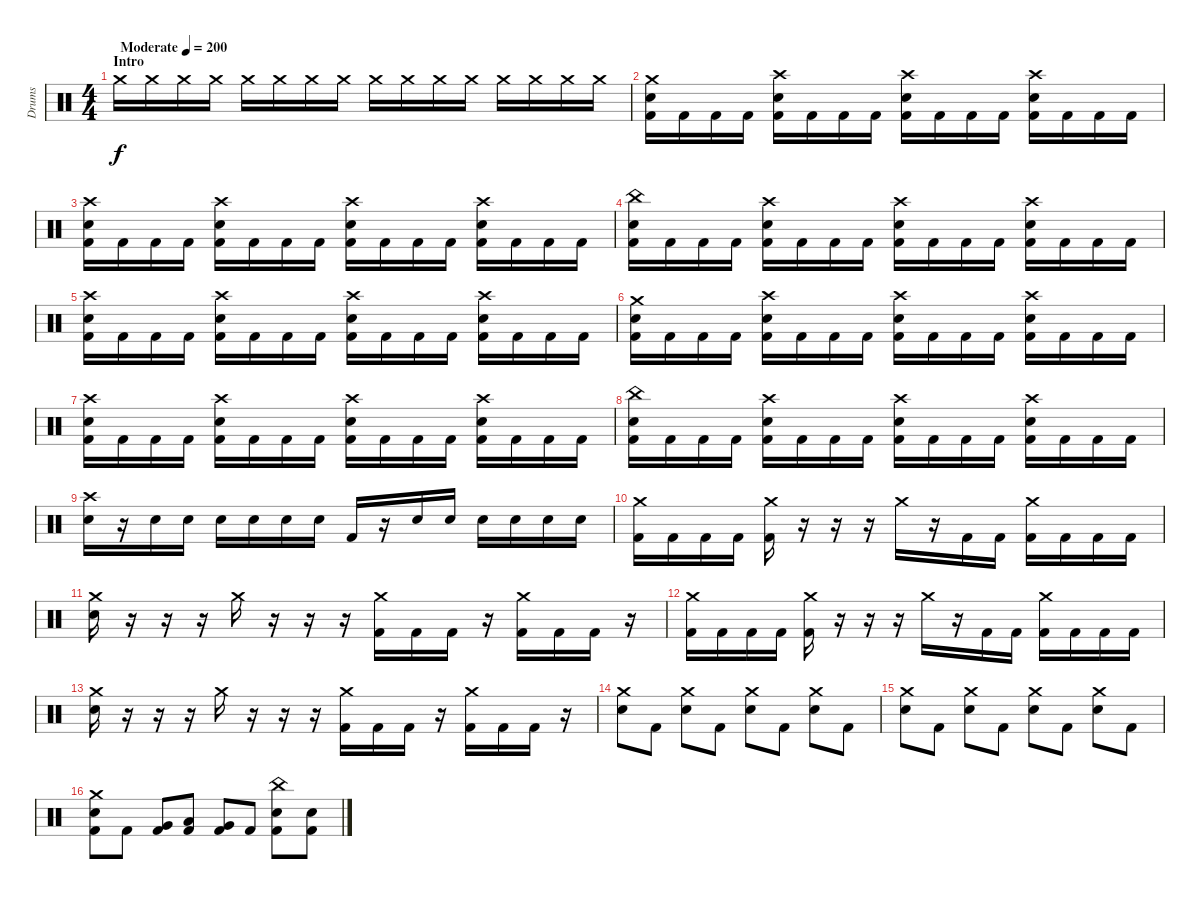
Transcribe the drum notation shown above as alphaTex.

\track ("Drums" "Drums") {instrument percussion}
\staff {score}
\articulation defaults
\ts (4 4)
\section ("" "Intro")
\tempo (200 "Moderate")
\clef neutral
\ks c "Crash medium (hit)".16{dy f volume 0} "Crash medium (hit)".16{volume 13} "Crash medium (hit)".16 "Crash medium (hit)".16 "Crash medium (hit)".16 "Crash medium (hit)".16 "Crash medium (hit)".16 "Crash medium (hit)".16 "Crash medium (hit)".16 "Crash medium (hit)".16 "Crash medium (hit)".16 "Crash medium (hit)".16 "Crash medium (hit)".16 "Crash medium (hit)".16 "Crash medium (hit)".16 "Crash medium (hit)".16
|
("Crash medium (hit)" "Electric Snare (hit)" "Kick (hit) 2").16 "Kick (hit) 2".16 "Kick (hit) 2".16 "Kick (hit) 2".16 ("Crash high (hit)" "Electric Snare (hit)" "Kick (hit) 2").16 "Kick (hit) 2".16 "Kick (hit) 2".16 "Kick (hit) 2".16 ("Crash high (hit)" "Electric Snare (hit)" "Kick (hit) 2").16 "Kick (hit) 2".16 "Kick (hit) 2".16 "Kick (hit) 2".16 ("Crash high (hit)" "Electric Snare (hit)" "Kick (hit) 2").16 "Kick (hit) 2".16 "Kick (hit) 2".16 "Kick (hit) 2".16 |
("Crash high (hit)" "Electric Snare (hit)" "Kick (hit) 2").16 "Kick (hit) 2".16 "Kick (hit) 2".16 "Kick (hit) 2".16 ("Crash high (hit)" "Electric Snare (hit)" "Kick (hit) 2").16 "Kick (hit) 2".16 "Kick (hit) 2".16 "Kick (hit) 2".16 ("Crash high (hit)" "Electric Snare (hit)" "Kick (hit) 2").16 "Kick (hit) 2".16 "Kick (hit) 2".16 "Kick (hit) 2".16 ("Crash high (hit)" "Electric Snare (hit)" "Kick (hit) 2").16 "Kick (hit) 2".16 "Kick (hit) 2".16 "Kick (hit) 2".16 |
("China (hit)" "Electric Snare (hit)" "Kick (hit) 2").16 "Kick (hit) 2".16 "Kick (hit) 2".16 "Kick (hit) 2".16 ("Crash high (hit)" "Electric Snare (hit)" "Kick (hit) 2").16 "Kick (hit) 2".16 "Kick (hit) 2".16 "Kick (hit) 2".16 ("Crash high (hit)" "Electric Snare (hit)" "Kick (hit) 2").16 "Kick (hit) 2".16 "Kick (hit) 2".16 "Kick (hit) 2".16 ("Crash high (hit)" "Electric Snare (hit)" "Kick (hit) 2").16 "Kick (hit) 2".16 "Kick (hit) 2".16 "Kick (hit) 2".16 |
("Crash high (hit)" "Electric Snare (hit)" "Kick (hit) 2").16 "Kick (hit) 2".16 "Kick (hit) 2".16 "Kick (hit) 2".16 ("Crash high (hit)" "Electric Snare (hit)" "Kick (hit) 2").16 "Kick (hit) 2".16 "Kick (hit) 2".16 "Kick (hit) 2".16 ("Crash high (hit)" "Electric Snare (hit)" "Kick (hit) 2").16 "Kick (hit) 2".16 "Kick (hit) 2".16 "Kick (hit) 2".16 ("Crash high (hit)" "Electric Snare (hit)" "Kick (hit) 2").16 "Kick (hit) 2".16 "Kick (hit) 2".16 "Kick (hit) 2".16 |
("Crash medium (hit)" "Electric Snare (hit)" "Kick (hit) 2").16 "Kick (hit) 2".16 "Kick (hit) 2".16 "Kick (hit) 2".16 ("Crash high (hit)" "Electric Snare (hit)" "Kick (hit) 2").16 "Kick (hit) 2".16 "Kick (hit) 2".16 "Kick (hit) 2".16 ("Crash high (hit)" "Electric Snare (hit)" "Kick (hit) 2").16 "Kick (hit) 2".16 "Kick (hit) 2".16 "Kick (hit) 2".16 ("Crash high (hit)" "Electric Snare (hit)" "Kick (hit) 2").16 "Kick (hit) 2".16 "Kick (hit) 2".16 "Kick (hit) 2".16 |
("Crash high (hit)" "Electric Snare (hit)" "Kick (hit) 2").16 "Kick (hit) 2".16 "Kick (hit) 2".16 "Kick (hit) 2".16 ("Crash high (hit)" "Electric Snare (hit)" "Kick (hit) 2").16 "Kick (hit) 2".16 "Kick (hit) 2".16 "Kick (hit) 2".16 ("Crash high (hit)" "Electric Snare (hit)" "Kick (hit) 2").16 "Kick (hit) 2".16 "Kick (hit) 2".16 "Kick (hit) 2".16 ("Crash high (hit)" "Electric Snare (hit)" "Kick (hit) 2").16 "Kick (hit) 2".16 "Kick (hit) 2".16 "Kick (hit) 2".16 |
("China (hit)" "Electric Snare (hit)" "Kick (hit) 2").16 "Kick (hit) 2".16 "Kick (hit) 2".16 "Kick (hit) 2".16 ("Crash high (hit)" "Electric Snare (hit)" "Kick (hit) 2").16 "Kick (hit) 2".16 "Kick (hit) 2".16 "Kick (hit) 2".16 ("Crash high (hit)" "Electric Snare (hit)" "Kick (hit) 2").16 "Kick (hit) 2".16 "Kick (hit) 2".16 "Kick (hit) 2".16 ("Crash high (hit)" "Electric Snare (hit)" "Kick (hit) 2").16 "Kick (hit) 2".16 "Kick (hit) 2".16 "Kick (hit) 2".16 |
("Crash high (hit)" "Electric Snare (hit)").16 r.16 "Electric Snare (hit)".16 "Electric Snare (hit)".16 "Electric Snare (hit)".16 "Electric Snare (hit)".16 "Electric Snare (hit)".16 "Electric Snare (hit)".16 "Kick (hit) 2".16 r.16 "Electric Snare (hit)".16 "Electric Snare (hit)".16 "Electric Snare (hit)".16 "Electric Snare (hit)".16 "Electric Snare (hit)".16 "Electric Snare (hit)".16 |
("Crash medium (hit)" "Kick (hit) 2").16 "Kick (hit) 2".16 "Kick (hit) 2".16 "Kick (hit) 2".16 ("Crash medium (hit)" "Kick (hit) 2").16 r.16 r.16 r.16 "Crash medium (hit)".16 r.16 "Kick (hit) 2".16 "Kick (hit) 2".16 ("Crash medium (hit)" "Kick (hit) 2").16 "Kick (hit) 2".16 "Kick (hit) 2".16 "Kick (hit) 2".16 |
("Crash medium (hit)" "Electric Snare (hit)").16 r.16 r.16 r.16 "Crash medium (hit)".16 r.16 r.16 r.16 ("Crash medium (hit)" "Kick (hit) 2").16 "Kick (hit) 2".16 "Kick (hit) 2".16 r.16 ("Crash medium (hit)" "Kick (hit) 2").16 "Kick (hit) 2".16 "Kick (hit) 2".16 r.16 |
("Crash medium (hit)" "Kick (hit) 2").16 "Kick (hit) 2".16 "Kick (hit) 2".16 "Kick (hit) 2".16 ("Crash medium (hit)" "Kick (hit) 2").16 r.16 r.16 r.16 "Crash medium (hit)".16 r.16 "Kick (hit) 2".16 "Kick (hit) 2".16 ("Crash medium (hit)" "Kick (hit) 2").16 "Kick (hit) 2".16 "Kick (hit) 2".16 "Kick (hit) 2".16 |
("Crash medium (hit)" "Electric Snare (hit)").16 r.16 r.16 r.16 "Crash medium (hit)".16 r.16 r.16 r.16 ("Crash medium (hit)" "Kick (hit) 2").16 "Kick (hit) 2".16 "Kick (hit) 2".16 r.16 ("Crash medium (hit)" "Kick (hit) 2").16 "Kick (hit) 2".16 "Kick (hit) 2".16 r.16 |
("Crash medium (hit)" "Electric Snare (hit)").8 "Kick (hit) 2".8 ("Crash medium (hit)" "Electric Snare (hit)").8 "Kick (hit) 2".8 ("Crash medium (hit)" "Electric Snare (hit)").8 "Kick (hit) 2".8 ("Crash medium (hit)" "Electric Snare (hit)").8 "Kick (hit) 2".8 |
("Crash medium (hit)" "Electric Snare (hit)").8 "Kick (hit) 2".8 ("Crash medium (hit)" "Electric Snare (hit)").8 "Kick (hit) 2".8 ("Crash medium (hit)" "Electric Snare (hit)").8 "Kick (hit) 2".8 ("Crash medium (hit)" "Electric Snare (hit)").8 "Kick (hit) 2".8 |
("Crash medium (hit)" "Electric Snare (hit)" "Kick (hit) 2").8 "Kick (hit) 2".8 ("Very Low Tom (hit)" "Kick (hit) 2").8 ("Low Tom (hit)" "Kick (hit) 2").8 ("Very Low Tom (hit)" "Kick (hit) 2").8 "Kick (hit) 2".8 ("China (hit)" "Electric Snare (hit)" "Kick (hit) 2").8 ("Electric Snare (hit)" "Kick (hit) 2").8
